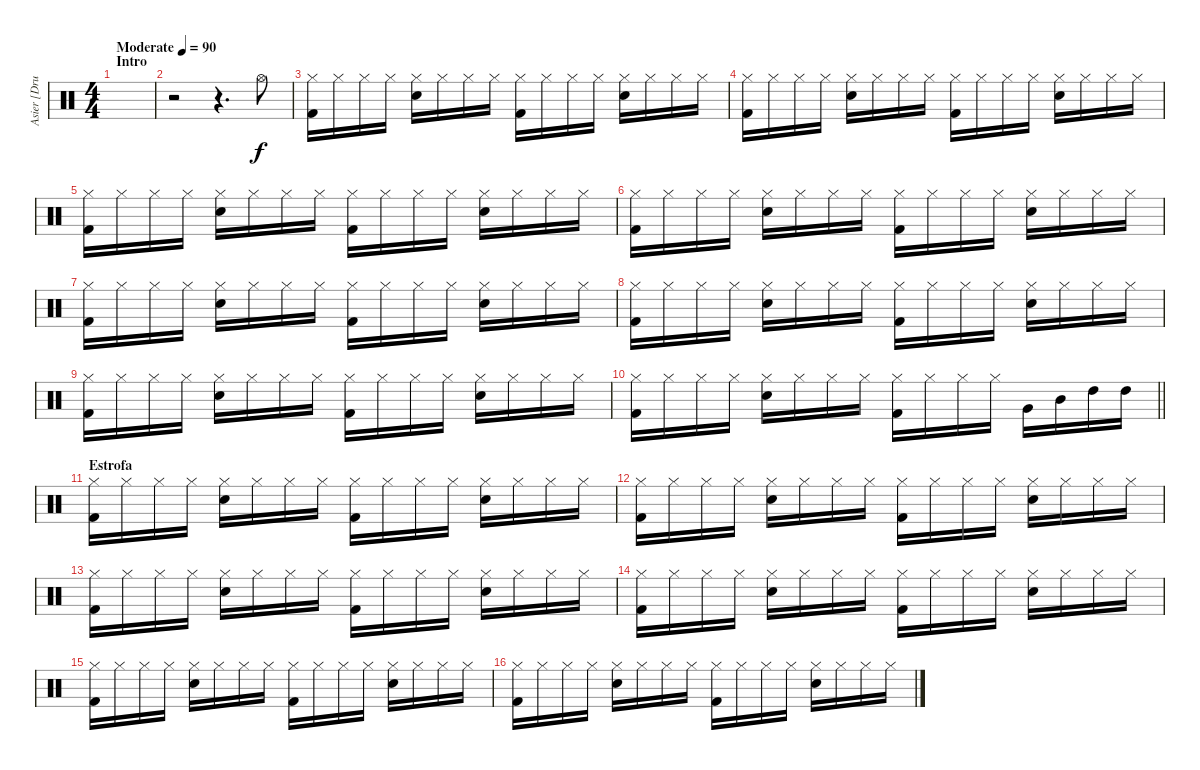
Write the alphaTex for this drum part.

\track ("Asier [Drums]" "Asier [Dru") {instrument percussion}
\staff {score}
\articulation defaults
\ts (4 4)
\section ("" "Intro")
\tempo (90 "Moderate")
\clef neutral
\ks c
|
r.2 r.4{d} "Hi-Hat (open)".8 |
("Hi-Hat (closed)" "Kick (hit) 2").16 "Hi-Hat (closed)".16 "Hi-Hat (closed)".16 "Hi-Hat (closed)".16 ("Hi-Hat (closed)" "Snare (hit) 2").16 "Hi-Hat (closed)".16 "Hi-Hat (closed)".16 "Hi-Hat (closed)".16 ("Hi-Hat (closed)" "Kick (hit) 2").16 "Hi-Hat (closed)".16 "Hi-Hat (closed)".16 "Hi-Hat (closed)".16 ("Hi-Hat (closed)" "Snare (hit) 2").16 "Hi-Hat (closed)".16 "Hi-Hat (closed)".16 "Hi-Hat (closed)".16 |
("Hi-Hat (closed)" "Kick (hit) 2").16 "Hi-Hat (closed)".16 "Hi-Hat (closed)".16 "Hi-Hat (closed)".16 ("Hi-Hat (closed)" "Snare (hit) 2").16 "Hi-Hat (closed)".16 "Hi-Hat (closed)".16 "Hi-Hat (closed)".16 ("Hi-Hat (closed)" "Kick (hit) 2").16 "Hi-Hat (closed)".16 "Hi-Hat (closed)".16 "Hi-Hat (closed)".16 ("Hi-Hat (closed)" "Snare (hit) 2").16 "Hi-Hat (closed)".16 "Hi-Hat (closed)".16 "Hi-Hat (closed)".16 |
("Hi-Hat (closed)" "Kick (hit) 2").16 "Hi-Hat (closed)".16 "Hi-Hat (closed)".16 "Hi-Hat (closed)".16 ("Hi-Hat (closed)" "Snare (hit) 2").16 "Hi-Hat (closed)".16 "Hi-Hat (closed)".16 "Hi-Hat (closed)".16 ("Hi-Hat (closed)" "Kick (hit) 2").16 "Hi-Hat (closed)".16 "Hi-Hat (closed)".16 "Hi-Hat (closed)".16 ("Hi-Hat (closed)" "Snare (hit) 2").16 "Hi-Hat (closed)".16 "Hi-Hat (closed)".16 "Hi-Hat (closed)".16 |
("Hi-Hat (closed)" "Kick (hit) 2").16 "Hi-Hat (closed)".16 "Hi-Hat (closed)".16 "Hi-Hat (closed)".16 ("Hi-Hat (closed)" "Snare (hit) 2").16 "Hi-Hat (closed)".16 "Hi-Hat (closed)".16 "Hi-Hat (closed)".16 ("Hi-Hat (closed)" "Kick (hit) 2").16 "Hi-Hat (closed)".16 "Hi-Hat (closed)".16 "Hi-Hat (closed)".16 ("Hi-Hat (closed)" "Snare (hit) 2").16 "Hi-Hat (closed)".16 "Hi-Hat (closed)".16 "Hi-Hat (closed)".16 |
("Hi-Hat (closed)" "Kick (hit) 2").16 "Hi-Hat (closed)".16 "Hi-Hat (closed)".16 "Hi-Hat (closed)".16 ("Hi-Hat (closed)" "Snare (hit) 2").16 "Hi-Hat (closed)".16 "Hi-Hat (closed)".16 "Hi-Hat (closed)".16 ("Hi-Hat (closed)" "Kick (hit) 2").16 "Hi-Hat (closed)".16 "Hi-Hat (closed)".16 "Hi-Hat (closed)".16 ("Hi-Hat (closed)" "Snare (hit) 2").16 "Hi-Hat (closed)".16 "Hi-Hat (closed)".16 "Hi-Hat (closed)".16 |
("Hi-Hat (closed)" "Kick (hit) 2").16 "Hi-Hat (closed)".16 "Hi-Hat (closed)".16 "Hi-Hat (closed)".16 ("Hi-Hat (closed)" "Snare (hit) 2").16 "Hi-Hat (closed)".16 "Hi-Hat (closed)".16 "Hi-Hat (closed)".16 ("Hi-Hat (closed)" "Kick (hit) 2").16 "Hi-Hat (closed)".16 "Hi-Hat (closed)".16 "Hi-Hat (closed)".16 ("Hi-Hat (closed)" "Snare (hit) 2").16 "Hi-Hat (closed)".16 "Hi-Hat (closed)".16 "Hi-Hat (closed)".16 |
("Hi-Hat (closed)" "Kick (hit) 2").16 "Hi-Hat (closed)".16 "Hi-Hat (closed)".16 "Hi-Hat (closed)".16 ("Hi-Hat (closed)" "Snare (hit) 2").16 "Hi-Hat (closed)".16 "Hi-Hat (closed)".16 "Hi-Hat (closed)".16 ("Hi-Hat (closed)" "Kick (hit) 2").16 "Hi-Hat (closed)".16 "Hi-Hat (closed)".16 "Hi-Hat (closed)".16 ("Hi-Hat (closed)" "Snare (hit) 2").16 "Hi-Hat (closed)".16 "Hi-Hat (closed)".16 "Hi-Hat (closed)".16 |
\barLineRight lightlight
("Hi-Hat (closed)" "Kick (hit) 2").16 "Hi-Hat (closed)".16 "Hi-Hat (closed)".16 "Hi-Hat (closed)".16 ("Hi-Hat (closed)" "Snare (hit) 2").16 "Hi-Hat (closed)".16 "Hi-Hat (closed)".16 "Hi-Hat (closed)".16 ("Hi-Hat (closed)" "Kick (hit) 2").16 "Hi-Hat (closed)".16 "Hi-Hat (closed)".16 "Hi-Hat (closed)".16 "Very Low Tom (hit)".16 "Mid Tom (hit)".16 "High Tom (hit)".16 "High Tom (hit)".16 |
\section ("" "Estrofa")
("Hi-Hat (closed)" "Kick (hit) 2").16 "Hi-Hat (closed)".16 "Hi-Hat (closed)".16 "Hi-Hat (closed)".16 ("Hi-Hat (closed)" "Snare (hit) 2").16 "Hi-Hat (closed)".16 "Hi-Hat (closed)".16 "Hi-Hat (closed)".16 ("Hi-Hat (closed)" "Kick (hit) 2").16 "Hi-Hat (closed)".16 "Hi-Hat (closed)".16 "Hi-Hat (closed)".16 ("Hi-Hat (closed)" "Snare (hit) 2").16 "Hi-Hat (closed)".16 "Hi-Hat (closed)".16 "Hi-Hat (closed)".16 |
("Hi-Hat (closed)" "Kick (hit) 2").16 "Hi-Hat (closed)".16 "Hi-Hat (closed)".16 "Hi-Hat (closed)".16 ("Hi-Hat (closed)" "Snare (hit) 2").16 "Hi-Hat (closed)".16 "Hi-Hat (closed)".16 "Hi-Hat (closed)".16 ("Hi-Hat (closed)" "Kick (hit) 2").16 "Hi-Hat (closed)".16 "Hi-Hat (closed)".16 "Hi-Hat (closed)".16 ("Hi-Hat (closed)" "Snare (hit) 2").16 "Hi-Hat (closed)".16 "Hi-Hat (closed)".16 "Hi-Hat (closed)".16 |
("Hi-Hat (closed)" "Kick (hit) 2").16 "Hi-Hat (closed)".16 "Hi-Hat (closed)".16 "Hi-Hat (closed)".16 ("Hi-Hat (closed)" "Snare (hit) 2").16 "Hi-Hat (closed)".16 "Hi-Hat (closed)".16 "Hi-Hat (closed)".16 ("Hi-Hat (closed)" "Kick (hit) 2").16 "Hi-Hat (closed)".16 "Hi-Hat (closed)".16 "Hi-Hat (closed)".16 ("Hi-Hat (closed)" "Snare (hit) 2").16 "Hi-Hat (closed)".16 "Hi-Hat (closed)".16 "Hi-Hat (closed)".16 |
("Hi-Hat (closed)" "Kick (hit) 2").16 "Hi-Hat (closed)".16 "Hi-Hat (closed)".16 "Hi-Hat (closed)".16 ("Hi-Hat (closed)" "Snare (hit) 2").16 "Hi-Hat (closed)".16 "Hi-Hat (closed)".16 "Hi-Hat (closed)".16 ("Hi-Hat (closed)" "Kick (hit) 2").16 "Hi-Hat (closed)".16 "Hi-Hat (closed)".16 "Hi-Hat (closed)".16 ("Hi-Hat (closed)" "Snare (hit) 2").16 "Hi-Hat (closed)".16 "Hi-Hat (closed)".16 "Hi-Hat (closed)".16 |
("Hi-Hat (closed)" "Kick (hit) 2").16 "Hi-Hat (closed)".16 "Hi-Hat (closed)".16 "Hi-Hat (closed)".16 ("Hi-Hat (closed)" "Snare (hit) 2").16 "Hi-Hat (closed)".16 "Hi-Hat (closed)".16 "Hi-Hat (closed)".16 ("Hi-Hat (closed)" "Kick (hit) 2").16 "Hi-Hat (closed)".16 "Hi-Hat (closed)".16 "Hi-Hat (closed)".16 ("Hi-Hat (closed)" "Snare (hit) 2").16 "Hi-Hat (closed)".16 "Hi-Hat (closed)".16 "Hi-Hat (closed)".16 |
("Hi-Hat (closed)" "Kick (hit) 2").16 "Hi-Hat (closed)".16 "Hi-Hat (closed)".16 "Hi-Hat (closed)".16 ("Hi-Hat (closed)" "Snare (hit) 2").16 "Hi-Hat (closed)".16 "Hi-Hat (closed)".16 "Hi-Hat (closed)".16 ("Hi-Hat (closed)" "Kick (hit) 2").16 "Hi-Hat (closed)".16 "Hi-Hat (closed)".16 "Hi-Hat (closed)".16 ("Hi-Hat (closed)" "Snare (hit) 2").16 "Hi-Hat (closed)".16 "Hi-Hat (closed)".16 "Hi-Hat (closed)".16
